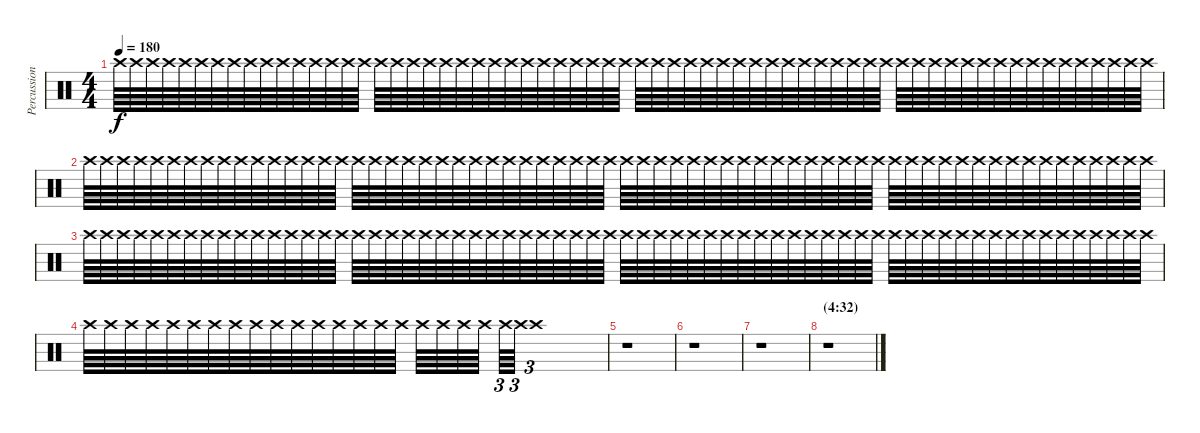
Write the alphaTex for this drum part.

\track ("Percussion" "Percussion") {instrument percussion}
\staff {score}
\articulation defaults
\ts (4 4)
\tempo 180
\clef neutral
\ks c "Crash high (hit)".64{dy f} "Crash high (hit)".64 "Crash high (hit)".64 "Crash high (hit)".64 "Crash high (hit)".64 "Crash high (hit)".64 "Crash high (hit)".64 "Crash high (hit)".64 "Crash high (hit)".64 "Crash high (hit)".64 "Crash high (hit)".64 "Crash high (hit)".64 "Crash high (hit)".64 "Crash high (hit)".64 "Crash high (hit)".64 "Crash high (hit)".64 "Crash high (hit)".64 "Crash high (hit)".64 "Crash high (hit)".64 "Crash high (hit)".64 "Crash high (hit)".64 "Crash high (hit)".64 "Crash high (hit)".64 "Crash high (hit)".64 "Crash high (hit)".64 "Crash high (hit)".64 "Crash high (hit)".64 "Crash high (hit)".64 "Crash high (hit)".64 "Crash high (hit)".64 "Crash high (hit)".64 "Crash high (hit)".64 "Crash high (hit)".64 "Crash high (hit)".64 "Crash high (hit)".64 "Crash high (hit)".64 "Crash high (hit)".64 "Crash high (hit)".64 "Crash high (hit)".64 "Crash high (hit)".64 "Crash high (hit)".64 "Crash high (hit)".64 "Crash high (hit)".64 "Crash high (hit)".64 "Crash high (hit)".64 "Crash high (hit)".64 "Crash high (hit)".64 "Crash high (hit)".64 "Crash high (hit)".64 "Crash high (hit)".64 "Crash high (hit)".64 "Crash high (hit)".64 "Crash high (hit)".64 "Crash high (hit)".64 "Crash high (hit)".64 "Crash high (hit)".64 "Crash high (hit)".64 "Crash high (hit)".64 "Crash high (hit)".64 "Crash high (hit)".64 "Crash high (hit)".64 "Crash high (hit)".64 "Crash high (hit)".64 "Crash high (hit)".64
|
"Crash high (hit)".64 "Crash high (hit)".64 "Crash high (hit)".64 "Crash high (hit)".64 "Crash high (hit)".64 "Crash high (hit)".64 "Crash high (hit)".64 "Crash high (hit)".64 "Crash high (hit)".64 "Crash high (hit)".64 "Crash high (hit)".64 "Crash high (hit)".64 "Crash high (hit)".64 "Crash high (hit)".64 "Crash high (hit)".64 "Crash high (hit)".64 "Crash high (hit)".64 "Crash high (hit)".64 "Crash high (hit)".64 "Crash high (hit)".64 "Crash high (hit)".64 "Crash high (hit)".64 "Crash high (hit)".64 "Crash high (hit)".64 "Crash high (hit)".64 "Crash high (hit)".64 "Crash high (hit)".64 "Crash high (hit)".64 "Crash high (hit)".64 "Crash high (hit)".64 "Crash high (hit)".64 "Crash high (hit)".64 "Crash high (hit)".64 "Crash high (hit)".64 "Crash high (hit)".64 "Crash high (hit)".64 "Crash high (hit)".64 "Crash high (hit)".64 "Crash high (hit)".64 "Crash high (hit)".64 "Crash high (hit)".64 "Crash high (hit)".64 "Crash high (hit)".64 "Crash high (hit)".64 "Crash high (hit)".64 "Crash high (hit)".64 "Crash high (hit)".64 "Crash high (hit)".64 "Crash high (hit)".64 "Crash high (hit)".64 "Crash high (hit)".64 "Crash high (hit)".64 "Crash high (hit)".64 "Crash high (hit)".64 "Crash high (hit)".64 "Crash high (hit)".64 "Crash high (hit)".64 "Crash high (hit)".64 "Crash high (hit)".64 "Crash high (hit)".64 "Crash high (hit)".64 "Crash high (hit)".64 "Crash high (hit)".64 "Crash high (hit)".64 |
"Crash high (hit)".64 "Crash high (hit)".64 "Crash high (hit)".64 "Crash high (hit)".64 "Crash high (hit)".64 "Crash high (hit)".64 "Crash high (hit)".64 "Crash high (hit)".64 "Crash high (hit)".64 "Crash high (hit)".64 "Crash high (hit)".64 "Crash high (hit)".64 "Crash high (hit)".64 "Crash high (hit)".64 "Crash high (hit)".64 "Crash high (hit)".64 "Crash high (hit)".64 "Crash high (hit)".64 "Crash high (hit)".64 "Crash high (hit)".64 "Crash high (hit)".64 "Crash high (hit)".64 "Crash high (hit)".64 "Crash high (hit)".64 "Crash high (hit)".64 "Crash high (hit)".64 "Crash high (hit)".64 "Crash high (hit)".64 "Crash high (hit)".64 "Crash high (hit)".64 "Crash high (hit)".64 "Crash high (hit)".64 "Crash high (hit)".64 "Crash high (hit)".64 "Crash high (hit)".64 "Crash high (hit)".64 "Crash high (hit)".64 "Crash high (hit)".64 "Crash high (hit)".64 "Crash high (hit)".64 "Crash high (hit)".64 "Crash high (hit)".64 "Crash high (hit)".64 "Crash high (hit)".64 "Crash high (hit)".64 "Crash high (hit)".64 "Crash high (hit)".64 "Crash high (hit)".64 "Crash high (hit)".64 "Crash high (hit)".64 "Crash high (hit)".64 "Crash high (hit)".64 "Crash high (hit)".64 "Crash high (hit)".64 "Crash high (hit)".64 "Crash high (hit)".64 "Crash high (hit)".64 "Crash high (hit)".64 "Crash high (hit)".64 "Crash high (hit)".64 "Crash high (hit)".64 "Crash high (hit)".64 "Crash high (hit)".64 "Crash high (hit)".64 |
"Crash high (hit)".64 "Crash high (hit)".64 "Crash high (hit)".64 "Crash high (hit)".64 "Crash high (hit)".64 "Crash high (hit)".64 "Crash high (hit)".64 "Crash high (hit)".64 "Crash high (hit)".64 "Crash high (hit)".64 "Crash high (hit)".64 "Crash high (hit)".64 "Crash high (hit)".64 "Crash high (hit)".64 "Crash high (hit)".64 "Crash high (hit)".64 "Crash high (hit)".64 "Crash high (hit)".64 "Crash high (hit)".64 "Crash high (hit)".64 "Crash high (hit)".64{tu (3 2)} "Crash high (hit)".64{tu (3 2)} "Crash high (hit)".1{tu (3 2)} |
r.1 |
r.1 |
r.1 |
\section ("" "(4:32)")
r.1
